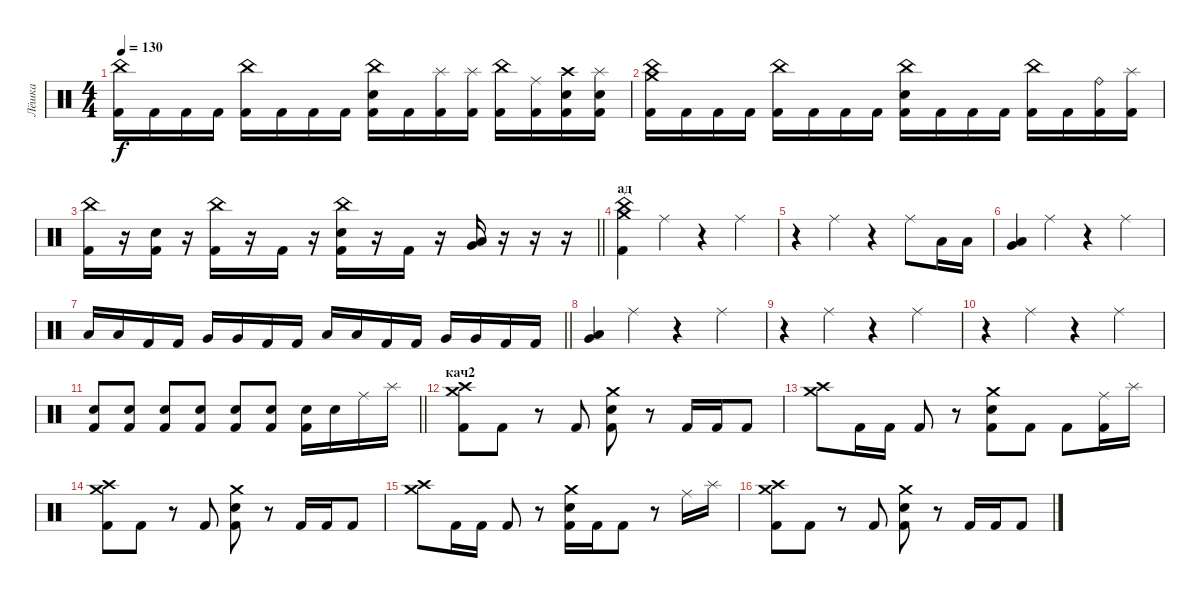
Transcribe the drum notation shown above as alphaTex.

\track ("Лёшка" "Лёшка") {instrument percussion}
\staff {score}
\articulation defaults
\ts (4 4)
\tempo 130
\clef neutral
\ks c
("China (hit)" "Kick (hit) 2").16{dy f} "Kick (hit) 2".16 "Kick (hit) 2".16 "Kick (hit) 2".16 ("China (hit)" "Kick (hit) 2").16 "Kick (hit) 2".16 "Kick (hit) 2".16 "Kick (hit) 2".16 ("China (hit)" "Electric Snare (hit)" "Kick (hit) 2").16 "Kick (hit) 2".16 ("Splash (hit)" "Kick (hit) 2").16 ("Splash (hit)" "Kick (hit) 2").16 ("China (hit)" "Kick (hit) 2").16 ("Ride (middle)" "Kick (hit) 2").16 ("Crash high (hit)" "Electric Snare (hit)" "Kick (hit) 2").16 ("Splash (hit)" "Electric Snare (hit)" "Kick (hit) 2").16 |
("China (hit)" "Crash medium (hit)" "Kick (hit) 2").16 "Kick (hit) 2".16 "Kick (hit) 2".16 "Kick (hit) 2".16 ("China (hit)" "Kick (hit) 2").16 "Kick (hit) 2".16 "Kick (hit) 2".16 "Kick (hit) 2".16 ("China (hit)" "Electric Snare (hit)" "Kick (hit) 2").16 "Kick (hit) 2".16 "Kick (hit) 2".16 "Kick (hit) 2".16 ("China (hit)" "Kick (hit) 2").16 "Kick (hit) 2".16 ("Ride (bell)" "Kick (hit) 2").16 ("Splash (hit)" "Kick (hit) 2").16 |
\barLineRight lightlight
("China (hit)" "Kick (hit) 2").16 r.16 ("Electric Snare (hit)" "Kick (hit) 2").16 r.16 ("China (hit)" "Kick (hit) 2").16 r.16 "Kick (hit) 2".16 r.16 ("China (hit)" "Electric Snare (hit)" "Kick (hit) 2").16 r.16 "Kick (hit) 2".16 r.16 ("Very Low Tom (hit)" "Low Tom (hit)").16 r.16 r.16 r.16 |
\section ("" "ад")
("Crash medium (hit)" "China (hit)" "Kick (hit) 2").4 "Ride (middle)".4 r.4 "Ride (middle)".4 |
r.4 "Ride (middle)".4 r.4 "Ride (middle)".8 "Low Tom (hit)".16 "Low Tom (hit)".16 |
("Low Tom (hit)" "Very Low Tom (hit)").4 "Ride (middle)".4 r.4 "Ride (middle)".4 |
\barLineRight lightlight "Low Tom (hit)".16 "Low Tom (hit)".16 "Kick (hit) 2".16 "Kick (hit) 2".16 "Very Low Tom (hit)".16 "Very Low Tom (hit)".16 "Kick (hit) 2".16 "Kick (hit) 2".16 "Low Floor Tom (hit)".16 "Low Floor Tom (hit)".16 "Kick (hit) 2".16 "Kick (hit) 2".16 "Very Low Tom (hit)".16 "Very Low Tom (hit)".16 "Kick (hit) 2".16 "Kick (hit) 2".16
|
("Low Floor Tom (hit)" "Very Low Tom (hit)").4 "Ride (middle)".4 r.4 "Ride (middle)".4 |
r.4 "Ride (middle)".4 r.4 "Ride (middle)".4 |
r.4 "Ride (middle)".4 r.4 "Ride (middle)".4 |
\barLineRight lightlight
("Electric Snare (hit)" "Kick (hit) 2").8 ("Electric Snare (hit)" "Kick (hit) 2").8 ("Electric Snare (hit)" "Kick (hit) 2").8 ("Electric Snare (hit)" "Kick (hit) 2").8 ("Electric Snare (hit)" "Kick (hit) 2").8 ("Electric Snare (hit)" "Kick (hit) 2").8 ("Electric Snare (hit)" "Kick (hit) 2").16 "Electric Snare (hit)".16 "Ride (middle)".16 "Splash (hit)".16 |
\section ("" "кач2")
("Crash medium (hit)" "Crash high (hit)" "Kick (hit) 2").8 "Kick (hit) 2".8 r.8 "Kick (hit) 2".8 ("Crash medium (hit)" "Electric Snare (hit)" "Kick (hit) 2").8 r.8 "Kick (hit) 2".16 "Kick (hit) 2".16 "Kick (hit) 2".8 |
("Crash medium (hit)" "Crash high (hit)").8 "Kick (hit) 2".16 "Kick (hit) 2".16 "Kick (hit) 2".8 r.8 ("Crash medium (hit)" "Electric Snare (hit)" "Kick (hit) 2").8 "Kick (hit) 2".8 "Kick (hit) 2".8 ("Ride (middle)" "Kick (hit) 2").16 "Splash (hit)".16 |
("Crash medium (hit)" "Crash high (hit)" "Kick (hit) 2").8 "Kick (hit) 2".8 r.8 "Kick (hit) 2".8 ("Crash medium (hit)" "Electric Snare (hit)" "Kick (hit) 2").8 r.8 "Kick (hit) 2".16 "Kick (hit) 2".16 "Kick (hit) 2".8 |
("Crash medium (hit)" "Crash high (hit)").8 "Kick (hit) 2".16 "Kick (hit) 2".16 "Kick (hit) 2".8 r.8 ("Crash medium (hit)" "Electric Snare (hit)" "Kick (hit) 2").16 "Kick (hit) 2".16 "Kick (hit) 2".8 r.8 "Ride (middle)".16 "Splash (hit)".16 |
("Crash medium (hit)" "Crash high (hit)" "Kick (hit) 2").8 "Kick (hit) 2".8 r.8 "Kick (hit) 2".8 ("Crash medium (hit)" "Electric Snare (hit)" "Kick (hit) 2").8 r.8 "Kick (hit) 2".16 "Kick (hit) 2".16 "Kick (hit) 2".8
